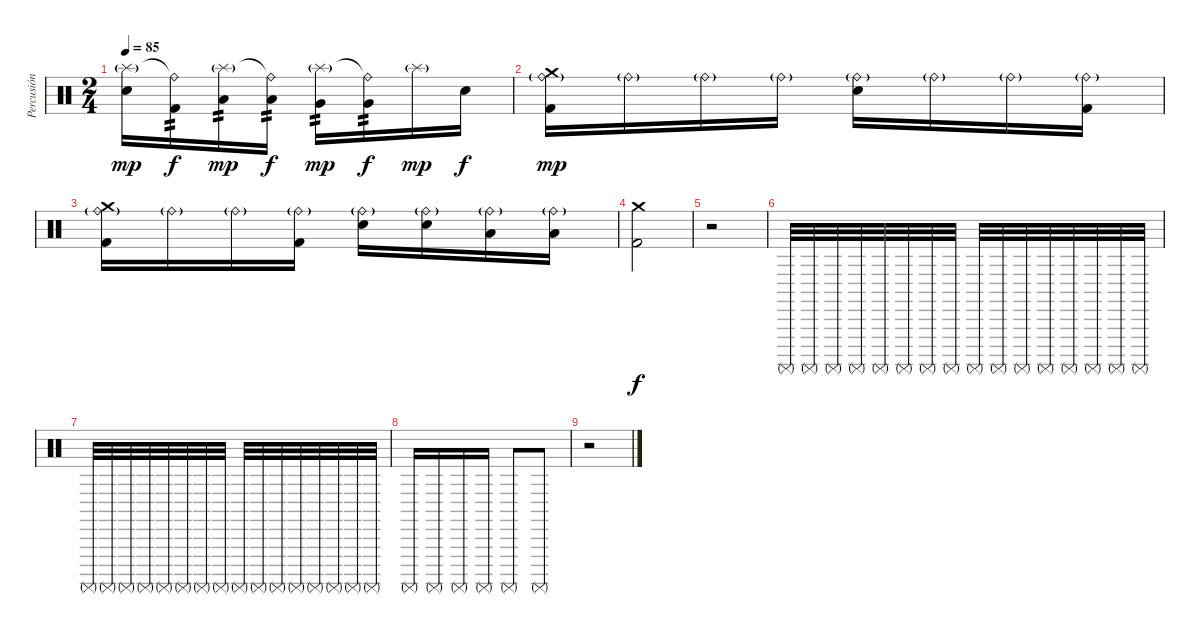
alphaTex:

\track ("Percusión" "Percusión") {instrument percussion}
\staff {score}
\articulation defaults
\ts (2 4)
\tempo 85
\clef neutral
\ks c
("Electric Snare (hit)" "Splash (hit)"{g}).16{dy mp} ("Kick (hit) 2" "Ride (bell)"{t}).16{tp 2 dy f} ("Low Tom (hit)" "Splash (hit)"{g}).16{tp 2 dy mp} ("Low Tom (hit)" "Ride (bell)"{t}).16{tp 2 dy f} ("Very Low Tom (hit)" "Splash (hit)"{g}).16{tp 2 dy mp} ("Very Low Tom (hit)" "Ride (bell)"{t}).16{tp 2 dy f} "Splash (hit)"{g}.16{dy mp} "Electric Snare (hit)".16{dy f} |
("Kick (hit) 2" "Ride (bell)"{g} "Crash medium (hit)").16{dy mp} "Ride (bell)"{g}.16 "Ride (bell)"{g}.16 "Ride (bell)"{g}.16 ("Electric Snare (hit)" "Ride (bell)"{g}).16 "Ride (bell)"{g}.16 "Ride (bell)"{g}.16 ("Kick (hit) 2" "Ride (bell)"{g}).16 |
("Kick (hit) 2" "Ride (bell)"{g} "Crash medium (hit)").16 "Ride (bell)"{g}.16 "Ride (bell)"{g}.16 ("Kick (hit) 2" "Ride (bell)"{g}).16 ("Electric Snare (hit)" "Ride (bell)"{g}).16 ("Electric Snare (hit)" "Ride (bell)"{g}).16 ("Low Tom (hit)" "Ride (bell)"{g}).16 ("Low Tom (hit)" "Ride (bell)"{g}).16 |
("Kick (hit) 2" "Crash medium (hit)").2{dy f} |
r.2 |
"Surdo (mute)".32{volume 0} "Surdo (mute)".32{volume 1} "Surdo (mute)".32{volume 2} "Surdo (mute)".32{volume 3} "Surdo (mute)".32{volume 4} "Surdo (mute)".32{volume 5} "Surdo (mute)".32{volume 6} "Surdo (mute)".32{volume 7} "Surdo (mute)".32{volume 8} "Surdo (mute)".32{volume 9} "Surdo (mute)".32{volume 9} "Surdo (mute)".32{volume 10} "Surdo (mute)".32{volume 11} "Surdo (mute)".32{volume 12} "Surdo (mute)".32{volume 13} "Surdo (mute)".32 |
"Surdo (mute)".32 "Surdo (mute)".32 "Surdo (mute)".32 "Surdo (mute)".32 "Surdo (mute)".32 "Surdo (mute)".32 "Surdo (mute)".32 "Surdo (mute)".32 "Surdo (mute)".32 "Surdo (mute)".32 "Surdo (mute)".32 "Surdo (mute)".32 "Surdo (mute)".32 "Surdo (mute)".32 "Surdo (mute)".32 "Surdo (mute)".32 |
"Surdo (mute)".16 "Surdo (mute)".16 "Surdo (mute)".16 "Surdo (mute)".16 "Surdo (mute)".8 "Surdo (mute)".8 |
r.2
